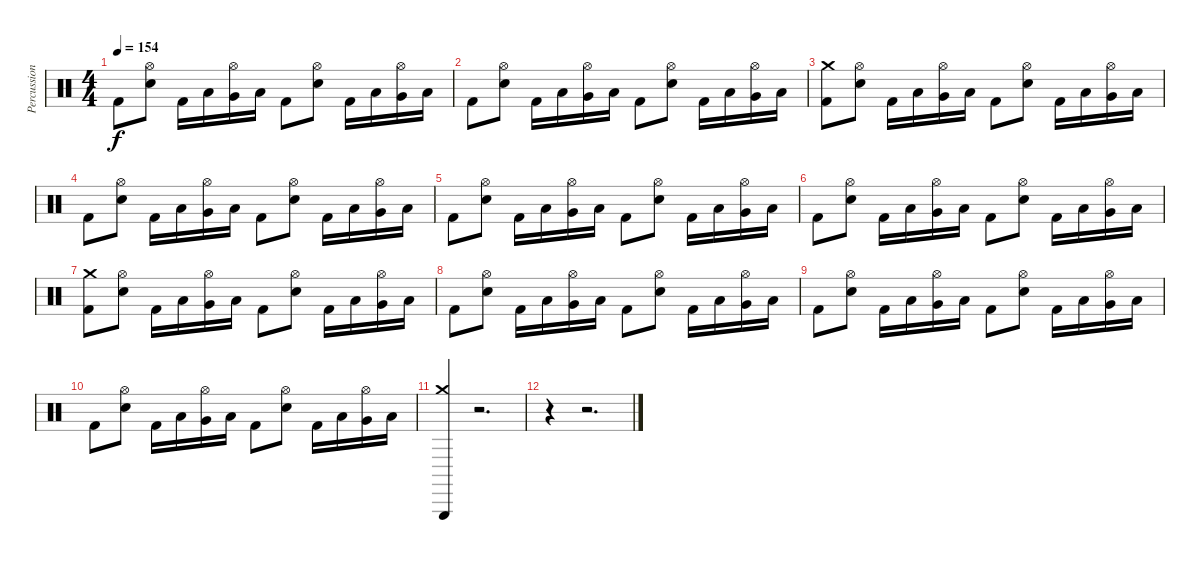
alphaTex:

\track ("Percussions" "Percussion") {instrument percussion}
\staff {score}
\articulation defaults
\ts (4 4)
\tempo 154
\clef neutral
\ks c "Kick (hit) 2".8{dy f}
("Hi-Hat (open)" "Electric Snare (hit)").8 "Kick (hit) 2".16 "Low Tom (hit)".16 ("Very Low Tom (hit)" "Hi-Hat (open)").16 "Low Floor Tom (hit)".16 "Kick (hit) 2".8 ("Hi-Hat (open)" "Electric Snare (hit)").8 "Kick (hit) 2".16 "Low Tom (hit)".16 ("Very Low Tom (hit)" "Hi-Hat (open)").16 "Low Floor Tom (hit)".16 |
"Kick (hit) 2".8 ("Hi-Hat (open)" "Electric Snare (hit)").8 "Kick (hit) 2".16 "Low Tom (hit)".16 ("Very Low Tom (hit)" "Hi-Hat (open)").16 "Low Floor Tom (hit)".16 "Kick (hit) 2".8 ("Hi-Hat (open)" "Electric Snare (hit)").8 "Kick (hit) 2".16 "Low Tom (hit)".16 ("Very Low Tom (hit)" "Hi-Hat (open)").16 "Low Floor Tom (hit)".16 |
("Kick (hit) 2" "Crash medium (hit)").8 ("Hi-Hat (open)" "Electric Snare (hit)").8 "Kick (hit) 2".16 "Low Tom (hit)".16 ("Very Low Tom (hit)" "Hi-Hat (open)").16 "Low Floor Tom (hit)".16 "Kick (hit) 2".8 ("Hi-Hat (open)" "Electric Snare (hit)").8 "Kick (hit) 2".16 "Low Tom (hit)".16 ("Very Low Tom (hit)" "Hi-Hat (open)").16 "Low Floor Tom (hit)".16 |
"Kick (hit) 2".8 ("Hi-Hat (open)" "Electric Snare (hit)").8 "Kick (hit) 2".16 "Low Tom (hit)".16 ("Very Low Tom (hit)" "Hi-Hat (open)").16 "Low Floor Tom (hit)".16 "Kick (hit) 2".8 ("Hi-Hat (open)" "Electric Snare (hit)").8 "Kick (hit) 2".16 "Low Tom (hit)".16 ("Very Low Tom (hit)" "Hi-Hat (open)").16 "Low Floor Tom (hit)".16 |
"Kick (hit) 2".8 ("Hi-Hat (open)" "Electric Snare (hit)").8 "Kick (hit) 2".16 "Low Tom (hit)".16 ("Very Low Tom (hit)" "Hi-Hat (open)").16 "Low Floor Tom (hit)".16 "Kick (hit) 2".8 ("Hi-Hat (open)" "Electric Snare (hit)").8 "Kick (hit) 2".16 "Low Tom (hit)".16 ("Very Low Tom (hit)" "Hi-Hat (open)").16 "Low Floor Tom (hit)".16 |
"Kick (hit) 2".8 ("Hi-Hat (open)" "Electric Snare (hit)").8 "Kick (hit) 2".16 "Low Tom (hit)".16 ("Very Low Tom (hit)" "Hi-Hat (open)").16 "Low Floor Tom (hit)".16 "Kick (hit) 2".8 ("Hi-Hat (open)" "Electric Snare (hit)").8 "Kick (hit) 2".16 "Low Tom (hit)".16 ("Very Low Tom (hit)" "Hi-Hat (open)").16 "Low Floor Tom (hit)".16 |
("Kick (hit) 2" "Crash medium (hit)").8 ("Hi-Hat (open)" "Electric Snare (hit)").8 "Kick (hit) 2".16 "Low Tom (hit)".16 ("Very Low Tom (hit)" "Hi-Hat (open)").16 "Low Floor Tom (hit)".16 "Kick (hit) 2".8 ("Hi-Hat (open)" "Electric Snare (hit)").8 "Kick (hit) 2".16 "Low Tom (hit)".16 ("Very Low Tom (hit)" "Hi-Hat (open)").16 "Low Floor Tom (hit)".16 |
"Kick (hit) 2".8 ("Hi-Hat (open)" "Electric Snare (hit)").8 "Kick (hit) 2".16 "Low Tom (hit)".16 ("Very Low Tom (hit)" "Hi-Hat (open)").16 "Low Floor Tom (hit)".16 "Kick (hit) 2".8 ("Hi-Hat (open)" "Electric Snare (hit)").8 "Kick (hit) 2".16 "Low Tom (hit)".16 ("Very Low Tom (hit)" "Hi-Hat (open)").16 "Low Floor Tom (hit)".16 |
"Kick (hit) 2".8 ("Hi-Hat (open)" "Electric Snare (hit)").8 "Kick (hit) 2".16 "Low Tom (hit)".16 ("Very Low Tom (hit)" "Hi-Hat (open)").16 "Low Floor Tom (hit)".16 "Kick (hit) 2".8 ("Hi-Hat (open)" "Electric Snare (hit)").8 "Kick (hit) 2".16 "Low Tom (hit)".16 ("Very Low Tom (hit)" "Hi-Hat (open)").16 "Low Floor Tom (hit)".16 |
"Kick (hit) 2".8 ("Hi-Hat (open)" "Electric Snare (hit)").8 "Kick (hit) 2".16 "Low Tom (hit)".16 ("Very Low Tom (hit)" "Hi-Hat (open)").16 "Low Floor Tom (hit)".16 "Kick (hit) 2".8 ("Hi-Hat (open)" "Electric Snare (hit)").8 "Kick (hit) 2".16 "Low Tom (hit)".16 ("Very Low Tom (hit)" "Hi-Hat (open)").16 "Low Floor Tom (hit)".16 |
("Crash medium (hit)" "Triangle (hit)").4 r.2{d} |
r.4 r.2{d}
